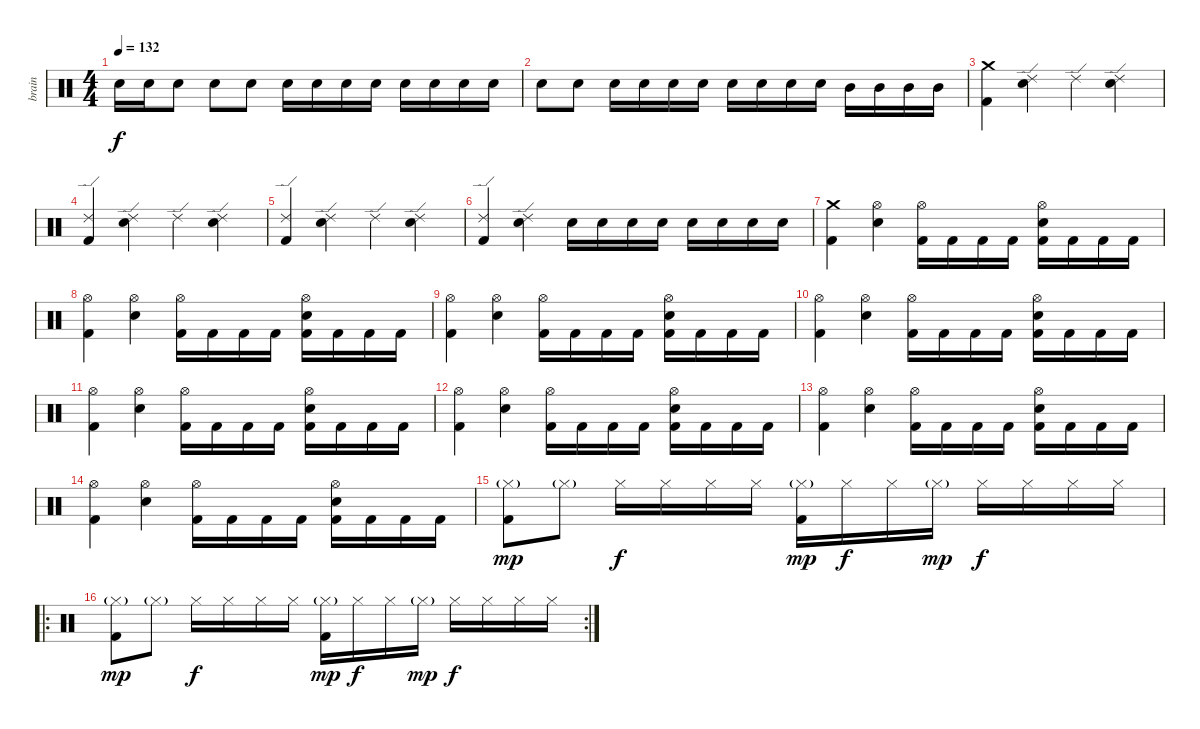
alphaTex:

\track ("brain" "brain") {instrument percussion}
\staff {score}
\articulation defaults
\ts (4 4)
\tempo 132
\clef neutral
\ks c "Electric Snare (hit)".16{dy f} "Electric Snare (hit)".16 "Electric Snare (hit)".8 "Electric Snare (hit)".8 "Electric Snare (hit)".8 "Electric Snare (hit)".16 "Electric Snare (hit)".16 "Electric Snare (hit)".16 "Electric Snare (hit)".16 "Electric Snare (hit)".16 "Electric Snare (hit)".16 "Electric Snare (hit)".16 "Electric Snare (hit)".16
|
"Electric Snare (hit)".8 "Electric Snare (hit)".8 "Electric Snare (hit)".16 "Electric Snare (hit)".16 "Electric Snare (hit)".16 "Electric Snare (hit)".16 "Electric Snare (hit)".16 "Electric Snare (hit)".16 "Electric Snare (hit)".16 "Electric Snare (hit)".16 "Mid Tom (hit)".16 "Mid Tom (hit)".16 "Mid Tom (hit)".16 "Mid Tom (hit)".16 |
("Crash medium (hit)" "Kick (hit) 2").4 ("Ride (edge) 2" "Electric Snare (hit)").4 "Ride (edge) 2".4 ("Ride (edge) 2" "Electric Snare (hit)").4 |
("Ride (edge) 2" "Kick (hit) 2").4 ("Ride (edge) 2" "Electric Snare (hit)").4 "Ride (edge) 2".4 ("Ride (edge) 2" "Electric Snare (hit)").4 |
("Ride (edge) 2" "Kick (hit) 2").4 ("Ride (edge) 2" "Electric Snare (hit)").4 "Ride (edge) 2".4 ("Ride (edge) 2" "Electric Snare (hit)").4 |
("Ride (edge) 2" "Kick (hit) 2").4 ("Ride (edge) 2" "Electric Snare (hit)").4 "Electric Snare (hit)".16 "Electric Snare (hit)".16 "Electric Snare (hit)".16 "Electric Snare (hit)".16 "Electric Snare (hit)".16 "Electric Snare (hit)".16 "Electric Snare (hit)".16 "Electric Snare (hit)".16 |
("Crash medium (hit)" "Kick (hit) 2").4 ("Hi-Hat (open)" "Electric Snare (hit)").4 ("Hi-Hat (open)" "Kick (hit) 2").16 "Kick (hit) 2".16 "Kick (hit) 2".16 "Kick (hit) 2".16 ("Hi-Hat (open)" "Electric Snare (hit)" "Kick (hit) 2").16 "Kick (hit) 2".16 "Kick (hit) 2".16 "Kick (hit) 2".16 |
("Hi-Hat (open)" "Kick (hit) 2").4 ("Hi-Hat (open)" "Electric Snare (hit)").4 ("Hi-Hat (open)" "Kick (hit) 2").16 "Kick (hit) 2".16 "Kick (hit) 2".16 "Kick (hit) 2".16 ("Hi-Hat (open)" "Electric Snare (hit)" "Kick (hit) 2").16 "Kick (hit) 2".16 "Kick (hit) 2".16 "Kick (hit) 2".16 |
("Hi-Hat (open)" "Kick (hit) 2").4 ("Hi-Hat (open)" "Electric Snare (hit)").4 ("Hi-Hat (open)" "Kick (hit) 2").16 "Kick (hit) 2".16 "Kick (hit) 2".16 "Kick (hit) 2".16 ("Hi-Hat (open)" "Electric Snare (hit)" "Kick (hit) 2").16 "Kick (hit) 2".16 "Kick (hit) 2".16 "Kick (hit) 2".16 |
("Hi-Hat (open)" "Kick (hit) 2").4 ("Hi-Hat (open)" "Electric Snare (hit)").4 ("Hi-Hat (open)" "Kick (hit) 2").16 "Kick (hit) 2".16 "Kick (hit) 2".16 "Kick (hit) 2".16 ("Hi-Hat (open)" "Electric Snare (hit)" "Kick (hit) 2").16 "Kick (hit) 2".16 "Kick (hit) 2".16 "Kick (hit) 2".16 |
("Hi-Hat (open)" "Kick (hit) 2").4 ("Hi-Hat (open)" "Electric Snare (hit)").4 ("Hi-Hat (open)" "Kick (hit) 2").16 "Kick (hit) 2".16 "Kick (hit) 2".16 "Kick (hit) 2".16 ("Hi-Hat (open)" "Electric Snare (hit)" "Kick (hit) 2").16 "Kick (hit) 2".16 "Kick (hit) 2".16 "Kick (hit) 2".16 |
("Hi-Hat (open)" "Kick (hit) 2").4 ("Hi-Hat (open)" "Electric Snare (hit)").4 ("Hi-Hat (open)" "Kick (hit) 2").16 "Kick (hit) 2".16 "Kick (hit) 2".16 "Kick (hit) 2".16 ("Hi-Hat (open)" "Electric Snare (hit)" "Kick (hit) 2").16 "Kick (hit) 2".16 "Kick (hit) 2".16 "Kick (hit) 2".16 |
("Hi-Hat (open)" "Kick (hit) 2").4 ("Hi-Hat (open)" "Electric Snare (hit)").4 ("Hi-Hat (open)" "Kick (hit) 2").16 "Kick (hit) 2".16 "Kick (hit) 2".16 "Kick (hit) 2".16 ("Hi-Hat (open)" "Electric Snare (hit)" "Kick (hit) 2").16 "Kick (hit) 2".16 "Kick (hit) 2".16 "Kick (hit) 2".16 |
("Hi-Hat (open)" "Kick (hit) 2").4 ("Hi-Hat (open)" "Electric Snare (hit)").4 ("Hi-Hat (open)" "Kick (hit) 2").16 "Kick (hit) 2".16 "Kick (hit) 2".16 "Kick (hit) 2".16 ("Hi-Hat (open)" "Electric Snare (hit)" "Kick (hit) 2").16 "Kick (hit) 2".16 "Kick (hit) 2".16 "Kick (hit) 2".16 |
("Hi-Hat (closed)"{g} "Kick (hit) 2").8{dy mp} "Hi-Hat (closed)"{g}.8 "Hi-Hat (closed)".16{dy f} "Hi-Hat (closed)".16 "Hi-Hat (closed)".16 "Hi-Hat (closed)".16 ("Hi-Hat (closed)"{g} "Kick (hit) 2").16{dy mp} "Hi-Hat (closed)".16{dy f} "Hi-Hat (closed)".16 "Hi-Hat (closed)"{g}.16{dy mp} "Hi-Hat (closed)".16{dy f} "Hi-Hat (closed)".16 "Hi-Hat (closed)".16 "Hi-Hat (closed)".16 |
\ro
\rc 2
("Hi-Hat (closed)"{g} "Kick (hit) 2").8{dy mp} "Hi-Hat (closed)"{g}.8 "Hi-Hat (closed)".16{dy f} "Hi-Hat (closed)".16 "Hi-Hat (closed)".16 "Hi-Hat (closed)".16 ("Hi-Hat (closed)"{g} "Kick (hit) 2").16{dy mp} "Hi-Hat (closed)".16{dy f} "Hi-Hat (closed)".16 "Hi-Hat (closed)"{g}.16{dy mp} "Hi-Hat (closed)".16{dy f} "Hi-Hat (closed)".16 "Hi-Hat (closed)".16 "Hi-Hat (closed)".16
